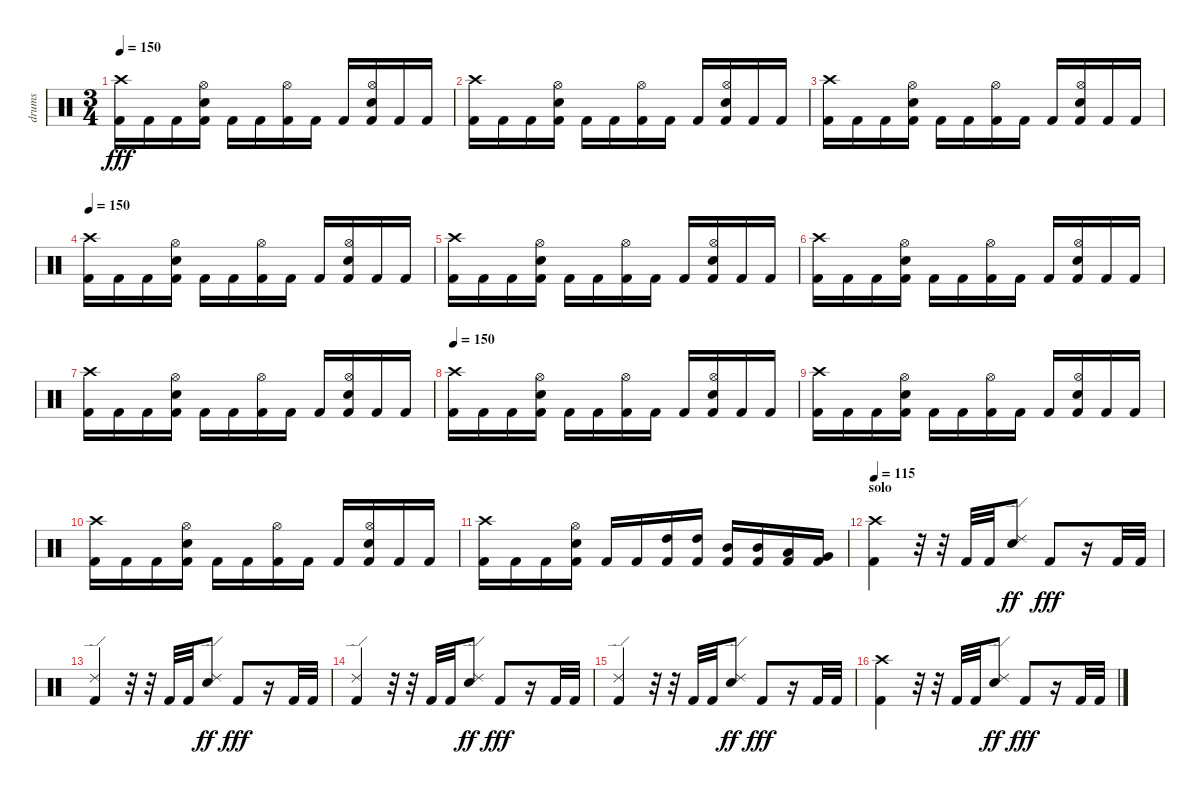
\track ("drums" "drums") {instrument percussion}
\staff {score}
\articulation defaults
\ts (3 4)
\tempo 150
\clef neutral
\ks c
("Crash high (hit)" "Kick (hit) 2").16{dy fff} "Kick (hit) 2".16 "Kick (hit) 2".16 ("Hi-Hat (open)" "Snare (hit) 2" "Kick (hit) 2").16 "Kick (hit) 2".16 "Kick (hit) 2".16 ("Hi-Hat (open)" "Kick (hit) 2").16 "Kick (hit) 2".16 "Kick (hit) 2".16 ("Hi-Hat (open)" "Snare (hit) 2" "Kick (hit) 2").16 "Kick (hit) 2".16 "Kick (hit) 2".16 |
("Crash high (hit)" "Kick (hit) 2").16 "Kick (hit) 2".16 "Kick (hit) 2".16 ("Hi-Hat (open)" "Snare (hit) 2" "Kick (hit) 2").16 "Kick (hit) 2".16 "Kick (hit) 2".16 ("Hi-Hat (open)" "Kick (hit) 2").16 "Kick (hit) 2".16 "Kick (hit) 2".16 ("Hi-Hat (open)" "Snare (hit) 2" "Kick (hit) 2").16 "Kick (hit) 2".16 "Kick (hit) 2".16 |
("Crash high (hit)" "Kick (hit) 2").16 "Kick (hit) 2".16 "Kick (hit) 2".16 ("Hi-Hat (open)" "Snare (hit) 2" "Kick (hit) 2").16 "Kick (hit) 2".16 "Kick (hit) 2".16 ("Hi-Hat (open)" "Kick (hit) 2").16 "Kick (hit) 2".16 "Kick (hit) 2".16 ("Hi-Hat (open)" "Snare (hit) 2" "Kick (hit) 2").16 "Kick (hit) 2".16 "Kick (hit) 2".16 |
\tempo 150
("Crash high (hit)" "Kick (hit) 2").16 "Kick (hit) 2".16 "Kick (hit) 2".16 ("Hi-Hat (open)" "Snare (hit) 2" "Kick (hit) 2").16 "Kick (hit) 2".16 "Kick (hit) 2".16 ("Hi-Hat (open)" "Kick (hit) 2").16 "Kick (hit) 2".16 "Kick (hit) 2".16 ("Hi-Hat (open)" "Snare (hit) 2" "Kick (hit) 2").16 "Kick (hit) 2".16 "Kick (hit) 2".16 |
("Crash high (hit)" "Kick (hit) 2").16 "Kick (hit) 2".16 "Kick (hit) 2".16 ("Hi-Hat (open)" "Snare (hit) 2" "Kick (hit) 2").16 "Kick (hit) 2".16 "Kick (hit) 2".16 ("Hi-Hat (open)" "Kick (hit) 2").16 "Kick (hit) 2".16 "Kick (hit) 2".16 ("Hi-Hat (open)" "Snare (hit) 2" "Kick (hit) 2").16 "Kick (hit) 2".16 "Kick (hit) 2".16 |
("Crash high (hit)" "Kick (hit) 2").16 "Kick (hit) 2".16 "Kick (hit) 2".16 ("Hi-Hat (open)" "Snare (hit) 2" "Kick (hit) 2").16 "Kick (hit) 2".16 "Kick (hit) 2".16 ("Hi-Hat (open)" "Kick (hit) 2").16 "Kick (hit) 2".16 "Kick (hit) 2".16 ("Hi-Hat (open)" "Snare (hit) 2" "Kick (hit) 2").16 "Kick (hit) 2".16 "Kick (hit) 2".16 |
("Crash high (hit)" "Kick (hit) 2").16 "Kick (hit) 2".16 "Kick (hit) 2".16 ("Hi-Hat (open)" "Snare (hit) 2" "Kick (hit) 2").16 "Kick (hit) 2".16 "Kick (hit) 2".16 ("Hi-Hat (open)" "Kick (hit) 2").16 "Kick (hit) 2".16 "Kick (hit) 2".16 ("Hi-Hat (open)" "Snare (hit) 2" "Kick (hit) 2").16 "Kick (hit) 2".16 "Kick (hit) 2".16 |
\tempo 150
("Crash high (hit)" "Kick (hit) 2").16 "Kick (hit) 2".16 "Kick (hit) 2".16 ("Hi-Hat (open)" "Snare (hit) 2" "Kick (hit) 2").16 "Kick (hit) 2".16 "Kick (hit) 2".16 ("Hi-Hat (open)" "Kick (hit) 2").16 "Kick (hit) 2".16 "Kick (hit) 2".16 ("Hi-Hat (open)" "Snare (hit) 2" "Kick (hit) 2").16 "Kick (hit) 2".16 "Kick (hit) 2".16 |
("Crash high (hit)" "Kick (hit) 2").16 "Kick (hit) 2".16 "Kick (hit) 2".16 ("Hi-Hat (open)" "Snare (hit) 2" "Kick (hit) 2").16 "Kick (hit) 2".16 "Kick (hit) 2".16 ("Hi-Hat (open)" "Kick (hit) 2").16 "Kick (hit) 2".16 "Kick (hit) 2".16 ("Hi-Hat (open)" "Snare (hit) 2" "Kick (hit) 2").16 "Kick (hit) 2".16 "Kick (hit) 2".16 |
("Crash high (hit)" "Kick (hit) 2").16 "Kick (hit) 2".16 "Kick (hit) 2".16 ("Hi-Hat (open)" "Snare (hit) 2" "Kick (hit) 2").16 "Kick (hit) 2".16 "Kick (hit) 2".16 ("Hi-Hat (open)" "Kick (hit) 2").16 "Kick (hit) 2".16 "Kick (hit) 2".16 ("Hi-Hat (open)" "Snare (hit) 2" "Kick (hit) 2").16 "Kick (hit) 2".16 "Kick (hit) 2".16 |
("Crash high (hit)" "Kick (hit) 2").16 "Kick (hit) 2".16 "Kick (hit) 2".16 ("Hi-Hat (open)" "Snare (hit) 2" "Kick (hit) 2").16 "Kick (hit) 2".16 "Kick (hit) 2".16 ("High Tom (hit)" "Kick (hit) 2").16 ("High Tom (hit)" "Kick (hit) 2").16 ("Mid Tom (hit)" "Kick (hit) 2").16 ("Mid Tom (hit)" "Kick (hit) 2").16 ("Low Tom (hit)" "Kick (hit) 2").16 ("Very Low Tom (hit)" "Kick (hit) 2").16 |
\section ("" "solo")
\tempo 115
("Crash high (hit)" "Kick (hit) 2").4 r.32 r.32 "Kick (hit) 2".32 "Kick (hit) 2".32 ("Ride (edge) 2" "Snare (hit) 2").8{dy ff} "Kick (hit) 2".8{dy fff} r.16 "Kick (hit) 2".32 "Kick (hit) 2".32 |
("Ride (edge) 2" "Kick (hit) 2").4 r.32 r.32 "Kick (hit) 2".32 "Kick (hit) 2".32 ("Ride (edge) 2" "Snare (hit) 2").8{dy ff} "Kick (hit) 2".8{dy fff} r.16 "Kick (hit) 2".32 "Kick (hit) 2".32 |
("Ride (edge) 2" "Kick (hit) 2").4 r.32 r.32 "Kick (hit) 2".32 "Kick (hit) 2".32 ("Ride (edge) 2" "Snare (hit) 2").8{dy ff} "Kick (hit) 2".8{dy fff} r.16 "Kick (hit) 2".32 "Kick (hit) 2".32 |
("Ride (edge) 2" "Kick (hit) 2").4 r.32 r.32 "Kick (hit) 2".32 "Kick (hit) 2".32 ("Ride (edge) 2" "Snare (hit) 2").8{dy ff} "Kick (hit) 2".8{dy fff} r.16 "Kick (hit) 2".32 "Kick (hit) 2".32 |
("Crash high (hit)" "Kick (hit) 2").4 r.32 r.32 "Kick (hit) 2".32 "Kick (hit) 2".32 ("Ride (edge) 2" "Snare (hit) 2").8{dy ff} "Kick (hit) 2".8{dy fff} r.16 "Kick (hit) 2".32 "Kick (hit) 2".32
